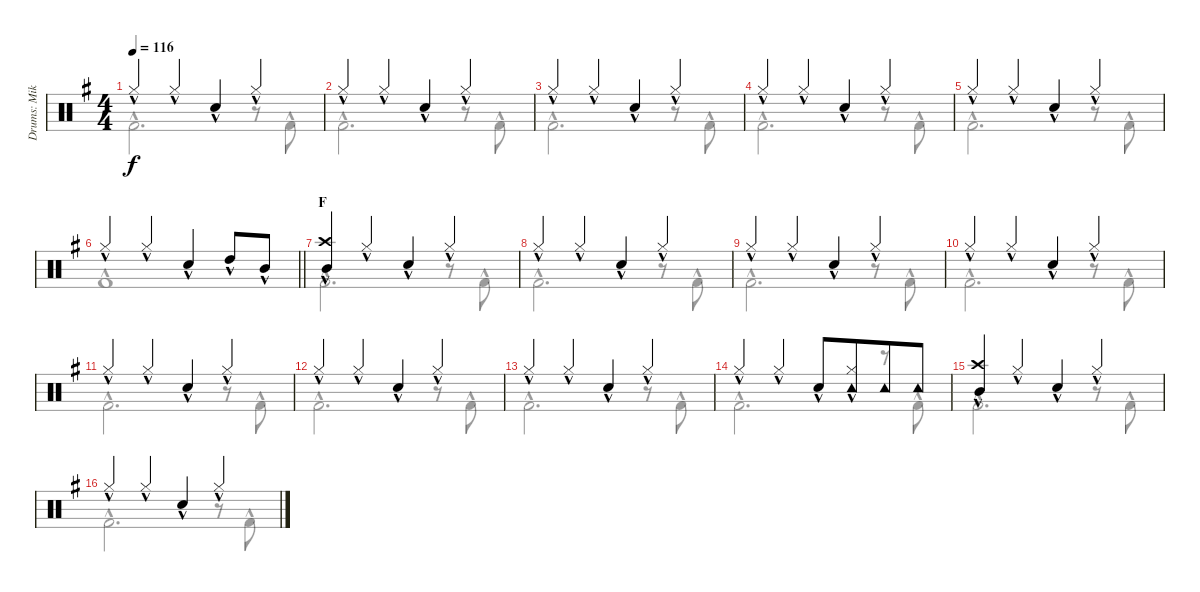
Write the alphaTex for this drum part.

\track ("Drums: Mike" "Drums: Mik") {instrument percussion}
\staff {score}
\articulation defaults
\voice
\ts (4 4)
\tempo 116
\clef neutral
\ks g "Hi-Hat (closed)"{hac}.4{dy f} "Hi-Hat (closed)"{hac}.4 "Snare (hit) 2"{hac}.4 "Hi-Hat (closed)"{hac}.4
|
"Hi-Hat (closed)"{hac}.4 "Hi-Hat (closed)"{hac}.4 "Snare (hit) 2"{hac}.4 "Hi-Hat (closed)"{hac}.4 |
"Hi-Hat (closed)"{hac}.4 "Hi-Hat (closed)"{hac}.4 "Snare (hit) 2"{hac}.4 "Hi-Hat (closed)"{hac}.4 |
"Hi-Hat (closed)"{hac}.4 "Hi-Hat (closed)"{hac}.4 "Snare (hit) 2"{hac}.4 "Hi-Hat (closed)"{hac}.4 |
"Hi-Hat (closed)"{hac}.4 "Hi-Hat (closed)"{hac}.4 "Snare (hit) 2"{hac}.4 "Hi-Hat (closed)"{hac}.4 |
\barLineRight lightlight "Hi-Hat (closed)"{hac}.4 "Hi-Hat (closed)"{hac}.4 "Snare (hit) 2"{hac}.4{beam merge} "High Tom (hit)"{hac}.8 "Mid Tom (hit)"{hac}.8
|
\section ("" "F")
("Crash high (hit)"{hac} "Mid Tom (hit)"{hac}).4 "Hi-Hat (closed)"{hac}.4 "Snare (hit) 2"{hac}.4 "Hi-Hat (closed)"{hac}.4 |
"Hi-Hat (closed)"{hac}.4 "Hi-Hat (closed)"{hac}.4 "Snare (hit) 2"{hac}.4 "Hi-Hat (closed)"{hac}.4 |
"Hi-Hat (closed)"{hac}.4 "Hi-Hat (closed)"{hac}.4 "Snare (hit) 2"{hac}.4 "Hi-Hat (closed)"{hac}.4 |
"Hi-Hat (closed)"{hac}.4 "Hi-Hat (closed)"{hac}.4 "Snare (hit) 2"{hac}.4 "Hi-Hat (closed)"{hac}.4 |
"Hi-Hat (closed)"{hac}.4 "Hi-Hat (closed)"{hac}.4 "Snare (hit) 2"{hac}.4 "Hi-Hat (closed)"{hac}.4 |
"Hi-Hat (closed)"{hac}.4 "Hi-Hat (closed)"{hac}.4 "Snare (hit) 2"{hac}.4 "Hi-Hat (closed)"{hac}.4 |
"Hi-Hat (closed)"{hac}.4 "Hi-Hat (closed)"{hac}.4 "Snare (hit) 2"{hac}.4 "Hi-Hat (closed)"{hac}.4 |
"Hi-Hat (closed)"{hac}.4 "Hi-Hat (closed)"{hac}.4 "Snare (hit) 2"{hac}.8 ("Tambourine (hit)" "Hi-Hat (closed)"{hac}).8{beam merge} "Tambourine (hit)".8 "Tambourine (hit)".8 |
("Crash high (hit)"{hac} "Mid Tom (hit)"{hac}).4 "Hi-Hat (closed)"{hac}.4 "Snare (hit) 2"{hac}.4 "Hi-Hat (closed)"{hac}.4 |
"Hi-Hat (closed)"{hac}.4 "Hi-Hat (closed)"{hac}.4 "Snare (hit) 2"{hac}.4 "Hi-Hat (closed)"{hac}.4
\voice
\clef neutral
\ottava regular
\simile none
\ks g "Kick (hit) 2"{hac}.2{d dy f}
r.8 "Kick (hit) 2"{hac}.8 |
"Kick (hit) 2"{hac}.2{d} r.8 "Kick (hit) 2"{hac}.8 |
"Kick (hit) 2"{hac}.2{d} r.8 "Kick (hit) 2"{hac}.8 |
"Kick (hit) 2"{hac}.2{d} r.8 "Kick (hit) 2"{hac}.8 |
"Kick (hit) 2"{hac}.2{d} r.8 "Kick (hit) 2"{hac}.8 |
\barLineRight lightlight "Kick (hit) 2"{hac}.1
|
"Kick (hit) 2"{hac}.2{d} r.8 "Kick (hit) 2"{hac}.8 |
"Kick (hit) 2"{hac}.2{d} r.8 "Kick (hit) 2"{hac}.8 |
"Kick (hit) 2"{hac}.2{d} r.8 "Kick (hit) 2"{hac}.8 |
"Kick (hit) 2"{hac}.2{d} r.8 "Kick (hit) 2"{hac}.8 |
"Kick (hit) 2"{hac}.2{d} r.8 "Kick (hit) 2"{hac}.8 |
"Kick (hit) 2"{hac}.2{d} r.8 "Kick (hit) 2"{hac}.8 |
"Kick (hit) 2"{hac}.2{d} r.8 "Kick (hit) 2"{hac}.8 |
"Kick (hit) 2"{hac}.2{d} r.8 "Kick (hit) 2"{hac}.8 |
"Kick (hit) 2"{hac}.2{d} r.8 "Kick (hit) 2"{hac}.8 |
"Kick (hit) 2"{hac}.2{d} r.8 "Kick (hit) 2"{hac}.8
